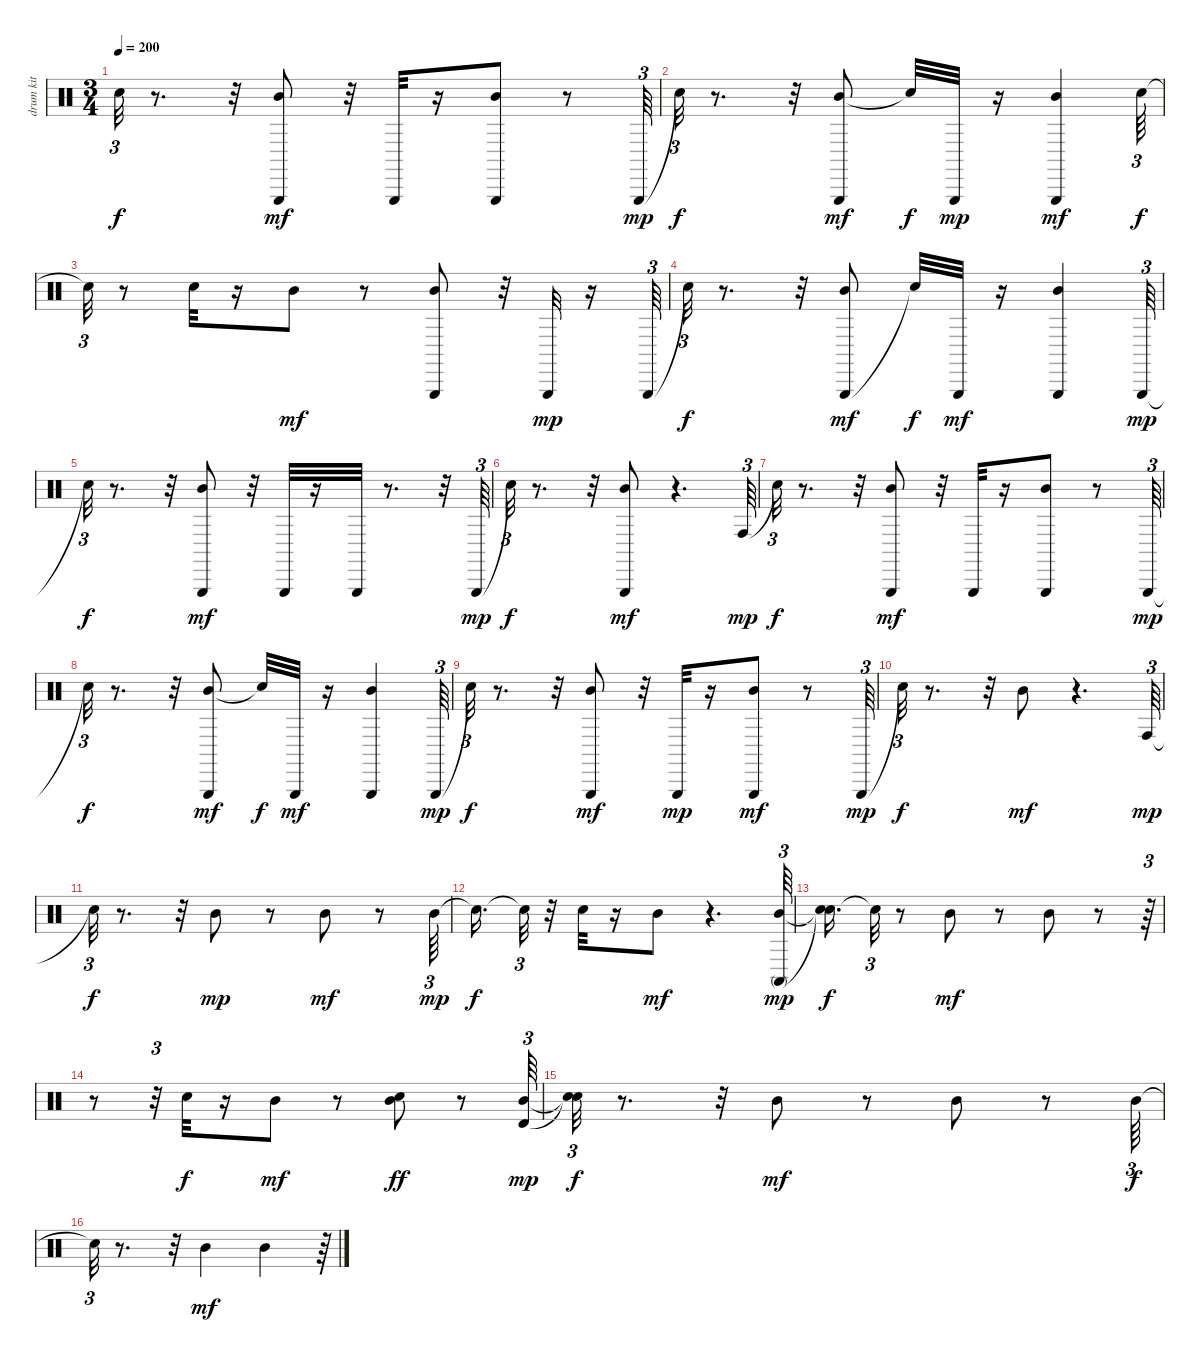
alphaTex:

\track (" drum kit (hi-hat/cymbals)" " drum kit ") {instrument percussion}
\staff {score}
\articulation defaults
\ts (3 4)
\tempo 200
\clef neutral
\ks c "Snare (hit)"{t}.32{tu (3 2) dy f}
r.8{d} r.32 ("Mid Tom (hit)" "Triangle (hit)").8{dy mf} r.32 "Triangle (hit)".32 r.16 ("Mid Tom (hit)" "Triangle (hit)").8 r.8 "Triangle (hit)".64{tu (3 2) dy mp} |
"Snare (hit)"{t}.32{tu (3 2) dy f} r.8{d} r.32 ("Mid Tom (hit)" "Triangle (hit)").8{dy mf} "Snare (hit)"{t}.32{dy f} "Triangle (hit)".32{dy mp} r.16 ("Mid Tom (hit)" "Triangle (hit)").4{dy mf} "Snare (hit)".64{tu (3 2) dy f} |
"Snare (hit)"{t}.32{tu (3 2)} r.8 "Snare (hit)".32 r.16 "Mid Tom (hit)".8{dy mf} r.8 ("Mid Tom (hit)" "Triangle (hit)").8 r.32 "Triangle (hit)".32{dy mp} r.16 "Triangle (hit)".64{tu (3 2)} |
"Snare (hit)"{t}.32{tu (3 2) dy f} r.8{d} r.32 ("Triangle (hit)" "Mid Tom (hit)").8{dy mf} "Snare (hit)"{t}.32{dy f} "Triangle (hit)".32{dy mf} r.16 ("Triangle (hit)" "Mid Tom (hit)").4 "Triangle (hit)".64{tu (3 2) dy mp} |
"Snare (hit)"{t}.32{tu (3 2) dy f} r.8{d} r.32 ("Mid Tom (hit)" "Triangle (hit)").8{dy mf} r.32 "Triangle (hit)".32 r.16 "Triangle (hit)".32 r.8{d} r.32 "Triangle (hit)".64{tu (3 2) dy mp} |
"Snare (hit)"{t}.32{tu (3 2) dy f} r.8{d} r.32 ("Mid Tom (hit)" "Triangle (hit)").8{dy mf} r.4{d} "Conga high (hit)".64{tu (3 2) dy mp} |
"Snare (hit)"{t}.32{tu (3 2) dy f} r.8{d} r.32 ("Mid Tom (hit)" "Triangle (hit)").8{dy mf} r.32 "Triangle (hit)".32 r.16 ("Mid Tom (hit)" "Triangle (hit)").8 r.8 "Triangle (hit)".64{tu (3 2) dy mp} |
"Snare (hit)"{t}.32{tu (3 2) dy f} r.8{d} r.32 ("Mid Tom (hit)" "Triangle (hit)").8{dy mf} "Snare (hit)"{t}.32{dy f} "Triangle (hit)".32{dy mf} r.16 ("Mid Tom (hit)" "Triangle (hit)").4 "Triangle (hit)".64{tu (3 2) dy mp} |
"Snare (hit)"{t}.32{tu (3 2) dy f} r.8{d} r.32 ("Mid Tom (hit)" "Triangle (hit)").8{dy mf} r.32 "Triangle (hit)".32{dy mp} r.16 ("Mid Tom (hit)" "Triangle (hit)").8{dy mf} r.8 "Triangle (hit)".64{tu (3 2) dy mp} |
"Snare (hit)"{t}.32{tu (3 2) dy f} r.8{d} r.32 "Mid Tom (hit)".8{dy mf} r.4{d} "Conga high (hit)".64{tu (3 2) dy mp} |
"Snare (hit)"{t}.32{tu (3 2) dy f} r.8{d} r.32 "Mid Tom (hit)".8{dy mp} r.8 "Mid Tom (hit)".8{dy mf} r.8 "Mid Tom (hit)".64{tu (3 2) dy mp} |
"Snare (hit)"{t}.16{d dy f} "Snare (hit)"{t}.32{tu (3 2)} r.32 "Snare (hit)".32 r.16 "Mid Tom (hit)".8{dy mf} r.4{d} ("Mid Tom (hit)" "Conga high (mute)").64{tu (3 2) dy mp} |
("Snare (hit)"{t} "Snare (hit)"{t}).16{d dy f} "Snare (hit)"{t}.32{tu (3 2)} r.8 "Mid Tom (hit)".8{dy mf} r.8 "Mid Tom (hit)".8 r.8 r.64{tu (3 2)} |
r.8 r.32{tu (3 2)} "Snare (hit)".32{dy f} r.16 "Mid Tom (hit)".8{dy mf} r.8 ("Mid Tom (hit)" "Snare (hit)").8{dy ff} r.8 ("Mid Tom (hit)" "Timbale high (hit)").64{tu (3 2) dy mp} |
("Snare (hit)"{t} "Snare (hit)"{t}).32{tu (3 2) dy f} r.8{d} r.32 "Mid Tom (hit)".8{dy mf} r.8 "Mid Tom (hit)".8 r.8 "Mid Tom (hit)".64{tu (3 2) dy f} |
"Snare (hit)"{t}.32{tu (3 2)} r.8{d} r.32 "Mid Tom (hit)".4{dy mf} "Mid Tom (hit)".4 r.64{tu (3 2)}
